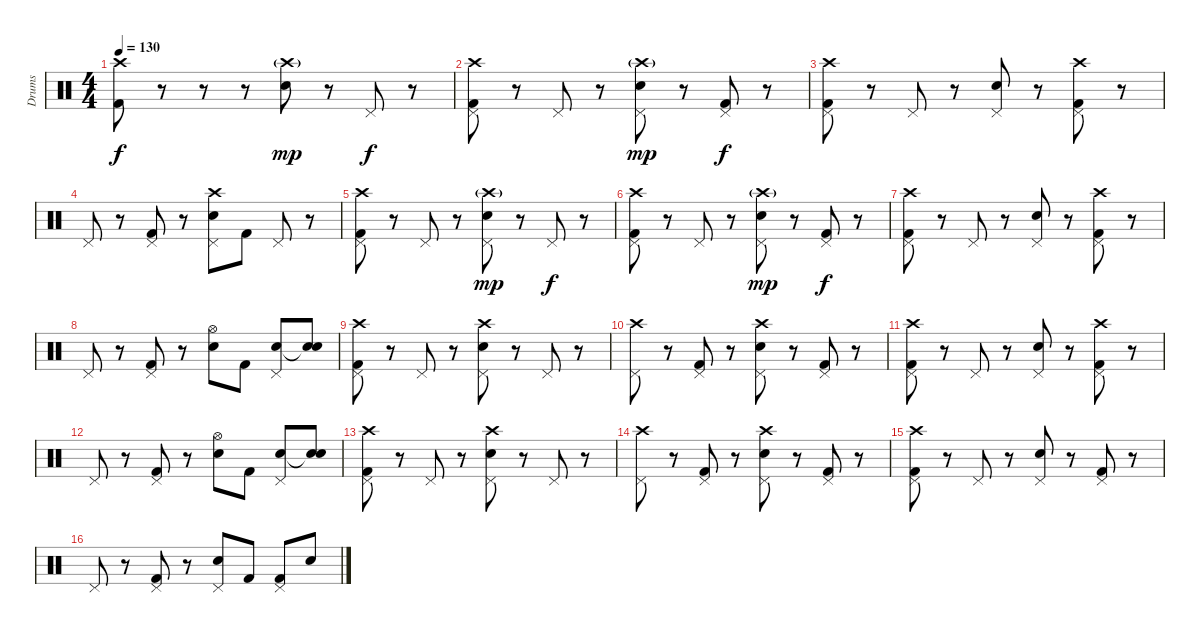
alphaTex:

\track ("Drums" "Drums") {instrument percussion}
\staff {score}
\articulation defaults
\ts (4 4)
\tempo 130
\clef neutral
\ks c
("Crash high (hit)" "Kick (hit) 2").8{dy f} r.8 r.8 r.8 ("Crash high (hit)"{g} "Snare (hit) 2").8{dy mp} r.8 "Pedal Hi-Hat (hit)".8{dy f} r.8 |
("Crash high (hit)" "Pedal Hi-Hat (hit)" "Kick (hit) 2").8 r.8 "Pedal Hi-Hat (hit)".8 r.8 ("Crash high (hit)"{g} "Snare (hit) 2" "Pedal Hi-Hat (hit)").8{dy mp} r.8 ("Pedal Hi-Hat (hit)" "Kick (hit) 2").8{dy f} r.8 |
("Crash high (hit)" "Pedal Hi-Hat (hit)" "Kick (hit) 2").8 r.8 "Pedal Hi-Hat (hit)".8 r.8 ("Snare (hit) 2" "Pedal Hi-Hat (hit)").8 r.8 ("Crash high (hit)" "Pedal Hi-Hat (hit)" "Kick (hit) 2").8 r.8 |
"Pedal Hi-Hat (hit)".8 r.8 ("Pedal Hi-Hat (hit)" "Kick (hit) 2").8 r.8 ("Crash high (hit)" "Snare (hit) 2" "Pedal Hi-Hat (hit)").8 "Kick (hit) 2".8 "Pedal Hi-Hat (hit)".8 r.8 |
("Crash high (hit)" "Pedal Hi-Hat (hit)" "Kick (hit) 2").8 r.8 "Pedal Hi-Hat (hit)".8 r.8 ("Crash high (hit)"{g} "Snare (hit) 2" "Pedal Hi-Hat (hit)").8{dy mp} r.8 "Pedal Hi-Hat (hit)".8{dy f} r.8 |
("Crash high (hit)" "Pedal Hi-Hat (hit)" "Kick (hit) 2").8 r.8 "Pedal Hi-Hat (hit)".8 r.8 ("Crash high (hit)"{g} "Snare (hit) 2" "Pedal Hi-Hat (hit)").8{dy mp} r.8 ("Pedal Hi-Hat (hit)" "Kick (hit) 2").8{dy f} r.8 |
("Crash high (hit)" "Pedal Hi-Hat (hit)" "Kick (hit) 2").8 r.8 "Pedal Hi-Hat (hit)".8 r.8 ("Snare (hit) 2" "Pedal Hi-Hat (hit)").8 r.8 ("Crash high (hit)" "Pedal Hi-Hat (hit)" "Kick (hit) 2").8 r.8 |
"Pedal Hi-Hat (hit)".8 r.8 ("Pedal Hi-Hat (hit)" "Kick (hit) 2").8 r.8 ("Hi-Hat (open)" "Snare (hit) 2").8 "Kick (hit) 2".8 ("Snare (hit) 2" "Pedal Hi-Hat (hit)").8 ("Snare (hit)"{t} "Snare (hit) 2").8 |
("Crash high (hit)" "Pedal Hi-Hat (hit)" "Kick (hit) 2").8 r.8 "Pedal Hi-Hat (hit)".8 r.8 ("Crash high (hit)" "Snare (hit) 2" "Pedal Hi-Hat (hit)").8 r.8 "Pedal Hi-Hat (hit)".8 r.8 |
("Crash high (hit)" "Pedal Hi-Hat (hit)").8 r.8 ("Pedal Hi-Hat (hit)" "Kick (hit) 2").8 r.8 ("Crash high (hit)" "Snare (hit) 2" "Pedal Hi-Hat (hit)").8 r.8 ("Pedal Hi-Hat (hit)" "Kick (hit) 2").8 r.8 |
("Crash high (hit)" "Pedal Hi-Hat (hit)" "Kick (hit) 2").8 r.8 "Pedal Hi-Hat (hit)".8 r.8 ("Snare (hit) 2" "Pedal Hi-Hat (hit)").8 r.8 ("Crash high (hit)" "Pedal Hi-Hat (hit)" "Kick (hit) 2").8 r.8 |
"Pedal Hi-Hat (hit)".8 r.8 ("Pedal Hi-Hat (hit)" "Kick (hit) 2").8 r.8 ("Hi-Hat (open)" "Snare (hit) 2").8 "Kick (hit) 2".8 ("Snare (hit) 2" "Pedal Hi-Hat (hit)").8 ("Snare (hit)"{t} "Snare (hit) 2").8 |
("Crash high (hit)" "Pedal Hi-Hat (hit)" "Kick (hit) 2").8 r.8 "Pedal Hi-Hat (hit)".8 r.8 ("Crash high (hit)" "Snare (hit) 2" "Pedal Hi-Hat (hit)").8 r.8 "Pedal Hi-Hat (hit)".8 r.8 |
("Crash high (hit)" "Pedal Hi-Hat (hit)").8 r.8 ("Pedal Hi-Hat (hit)" "Kick (hit) 2").8 r.8 ("Crash high (hit)" "Snare (hit) 2" "Pedal Hi-Hat (hit)").8 r.8 ("Pedal Hi-Hat (hit)" "Kick (hit) 2").8 r.8 |
("Crash high (hit)" "Pedal Hi-Hat (hit)" "Kick (hit) 2").8 r.8 "Pedal Hi-Hat (hit)".8 r.8 ("Snare (hit) 2" "Pedal Hi-Hat (hit)").8 r.8 ("Pedal Hi-Hat (hit)" "Kick (hit) 2").8 r.8 |
"Pedal Hi-Hat (hit)".8 r.8 ("Pedal Hi-Hat (hit)" "Kick (hit) 2").8 r.8 ("Snare (hit) 2" "Pedal Hi-Hat (hit)").8 "Kick (hit) 2".8 ("Pedal Hi-Hat (hit)" "Kick (hit) 2").8 "Snare (hit) 2".8
